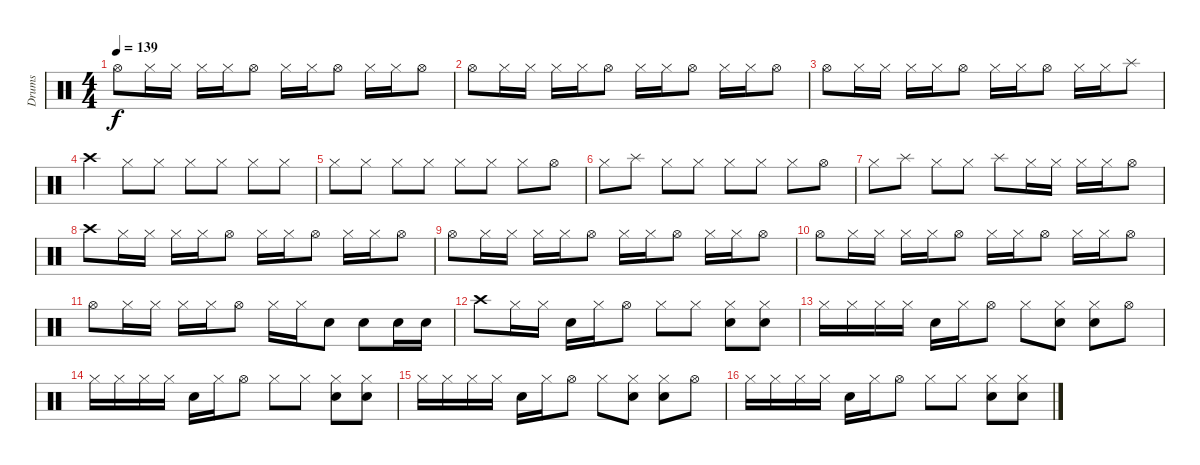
\track ("Drums" "Drums") {instrument percussion}
\staff {score}
\articulation defaults
\ts (4 4)
\tempo 139
\clef neutral
\ks c "Hi-Hat (open)".8{dy f} "Hi-Hat (closed)".16 "Hi-Hat (closed)".16 "Hi-Hat (closed)".16 "Hi-Hat (closed)".16 "Hi-Hat (open)".8 "Hi-Hat (closed)".16 "Hi-Hat (closed)".16 "Hi-Hat (open)".8 "Hi-Hat (closed)".16 "Hi-Hat (closed)".16 "Hi-Hat (open)".8
|
"Hi-Hat (open)".8 "Hi-Hat (closed)".16 "Hi-Hat (closed)".16 "Hi-Hat (closed)".16 "Hi-Hat (closed)".16 "Hi-Hat (open)".8 "Hi-Hat (closed)".16 "Hi-Hat (closed)".16 "Hi-Hat (open)".8 "Hi-Hat (closed)".16 "Hi-Hat (closed)".16 "Hi-Hat (open)".8 |
"Hi-Hat (open)".8 "Hi-Hat (closed)".16 "Hi-Hat (closed)".16 "Hi-Hat (closed)".16 "Hi-Hat (closed)".16 "Hi-Hat (open)".8 "Hi-Hat (closed)".16 "Hi-Hat (closed)".16 "Hi-Hat (open)".8 "Hi-Hat (closed)".16 "Hi-Hat (closed)".16 "Splash (hit)".8 |
"Crash high (hit)".4 "Hi-Hat (closed)".8 "Hi-Hat (closed)".8 "Hi-Hat (closed)".8 "Hi-Hat (closed)".8 "Hi-Hat (closed)".8 "Hi-Hat (closed)".8 |
"Hi-Hat (closed)".8 "Hi-Hat (closed)".8 "Hi-Hat (closed)".8 "Hi-Hat (closed)".8 "Hi-Hat (closed)".8 "Hi-Hat (closed)".8 "Hi-Hat (closed)".8 "Hi-Hat (open)".8 |
"Hi-Hat (closed)".8 "Splash (hit)".8 "Hi-Hat (closed)".8 "Hi-Hat (closed)".8 "Hi-Hat (closed)".8 "Hi-Hat (closed)".8 "Hi-Hat (closed)".8 "Hi-Hat (open)".8 |
"Hi-Hat (closed)".8 "Splash (hit)".8 "Hi-Hat (closed)".8 "Hi-Hat (closed)".8 "Splash (hit)".8 "Hi-Hat (closed)".16 "Hi-Hat (closed)".16 "Hi-Hat (closed)".16 "Hi-Hat (closed)".16 "Hi-Hat (open)".8 |
"Crash high (hit)".8 "Hi-Hat (closed)".16 "Hi-Hat (closed)".16 "Hi-Hat (closed)".16 "Hi-Hat (closed)".16 "Hi-Hat (open)".8 "Hi-Hat (closed)".16 "Hi-Hat (closed)".16 "Hi-Hat (open)".8 "Hi-Hat (closed)".16 "Hi-Hat (closed)".16 "Hi-Hat (open)".8 |
"Hi-Hat (open)".8 "Hi-Hat (closed)".16 "Hi-Hat (closed)".16 "Hi-Hat (closed)".16 "Hi-Hat (closed)".16 "Hi-Hat (open)".8 "Hi-Hat (closed)".16 "Hi-Hat (closed)".16 "Hi-Hat (open)".8 "Hi-Hat (closed)".16 "Hi-Hat (closed)".16 "Hi-Hat (open)".8 |
"Hi-Hat (open)".8 "Hi-Hat (closed)".16 "Hi-Hat (closed)".16 "Hi-Hat (closed)".16 "Hi-Hat (closed)".16 "Hi-Hat (open)".8 "Hi-Hat (closed)".16 "Hi-Hat (closed)".16 "Hi-Hat (open)".8 "Hi-Hat (closed)".16 "Hi-Hat (closed)".16 "Hi-Hat (open)".8 |
"Hi-Hat (open)".8 "Hi-Hat (closed)".16 "Hi-Hat (closed)".16 "Hi-Hat (closed)".16 "Hi-Hat (closed)".16 "Hi-Hat (open)".8 "Hi-Hat (closed)".16 "Hi-Hat (closed)".16 "Snare (hit) 2".8 "Snare (hit) 2".8 "Snare (hit) 2".16 "Snare (hit) 2".16 |
"Crash high (hit)".8 "Hi-Hat (closed)".16 "Hi-Hat (closed)".16 "Snare (hit) 2".16 "Hi-Hat (closed)".16 "Hi-Hat (open)".8 "Hi-Hat (closed)".8 "Hi-Hat (closed)".8 ("Hi-Hat (closed)" "Snare (hit) 2").8 ("Hi-Hat (closed)" "Snare (hit) 2").8 |
"Hi-Hat (closed)".16 "Hi-Hat (closed)".16 "Hi-Hat (closed)".16 "Hi-Hat (closed)".16 "Snare (hit) 2".16 "Hi-Hat (closed)".16 "Hi-Hat (open)".8 "Hi-Hat (closed)".8 ("Hi-Hat (closed)" "Snare (hit) 2").8 ("Hi-Hat (closed)" "Snare (hit) 2").8 "Hi-Hat (open)".8 |
"Hi-Hat (closed)".16 "Hi-Hat (closed)".16 "Hi-Hat (closed)".16 "Hi-Hat (closed)".16 "Snare (hit) 2".16 "Hi-Hat (closed)".16 "Hi-Hat (open)".8 "Hi-Hat (closed)".8 "Hi-Hat (closed)".8 ("Hi-Hat (closed)" "Snare (hit) 2").8 ("Hi-Hat (closed)" "Snare (hit) 2").8 |
"Hi-Hat (closed)".16 "Hi-Hat (closed)".16 "Hi-Hat (closed)".16 "Hi-Hat (closed)".16 "Snare (hit) 2".16 "Hi-Hat (closed)".16 "Hi-Hat (open)".8 "Hi-Hat (closed)".8 ("Hi-Hat (closed)" "Snare (hit) 2").8 ("Hi-Hat (closed)" "Snare (hit) 2").8 "Hi-Hat (open)".8 |
"Hi-Hat (closed)".16 "Hi-Hat (closed)".16 "Hi-Hat (closed)".16 "Hi-Hat (closed)".16 "Snare (hit) 2".16 "Hi-Hat (closed)".16 "Hi-Hat (open)".8 "Hi-Hat (closed)".8 "Hi-Hat (closed)".8 ("Hi-Hat (closed)" "Snare (hit) 2").8 ("Hi-Hat (closed)" "Snare (hit) 2").8
